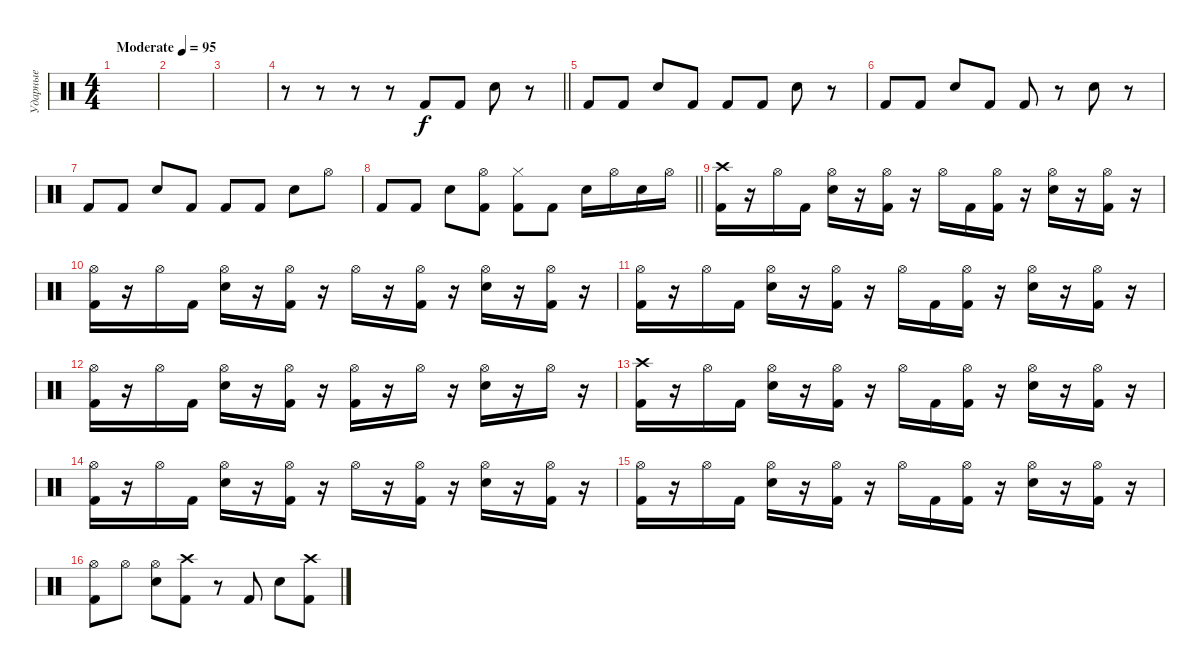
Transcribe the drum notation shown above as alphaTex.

\track ("Ударные" "Ударные") {instrument percussion}
\staff {score}
\articulation defaults
\ts (4 4)
\tempo (95 "Moderate")
\clef neutral
\ks c
|
|
|
\barLineRight lightlight
r.8 r.8 r.8 r.8 "Kick (hit) 2".8 "Kick (hit) 2".8 "Electric Snare (hit)".8 r.8 |
"Kick (hit) 2".8 "Kick (hit) 2".8 "Electric Snare (hit)".8 "Kick (hit) 2".8 "Kick (hit) 2".8 "Kick (hit) 2".8 "Electric Snare (hit)".8 r.8 |
"Kick (hit) 2".8 "Kick (hit) 2".8 "Electric Snare (hit)".8 "Kick (hit) 2".8 "Kick (hit) 2".8 r.8 "Electric Snare (hit)".8 r.8 |
"Kick (hit) 2".8 "Kick (hit) 2".8 "Electric Snare (hit)".8 "Kick (hit) 2".8 "Kick (hit) 2".8 "Kick (hit) 2".8 "Electric Snare (hit)".8 "Hi-Hat (open)".8 |
\barLineRight lightlight "Kick (hit) 2".8 "Kick (hit) 2".8 "Electric Snare (hit)".8
("Hi-Hat (open)" "Kick (hit) 2").8 ("Hi-Hat (closed)" "Kick (hit) 2").8 "Kick (hit) 2".8 "Electric Snare (hit)".16 "Hi-Hat (open)".16 "Electric Snare (hit)".16 "Hi-Hat (open)".16 |
\section ("" "")
("Crash high (hit)" "Kick (hit) 2").16 r.16 "Hi-Hat (open)".16 "Kick (hit) 2".16 ("Hi-Hat (open)" "Electric Snare (hit)").16 r.16 ("Hi-Hat (open)" "Kick (hit) 2").16 r.16 "Hi-Hat (open)".16 "Kick (hit) 2".16 ("Hi-Hat (open)" "Kick (hit) 2").16 r.16 ("Hi-Hat (open)" "Electric Snare (hit)").16 r.16 ("Hi-Hat (open)" "Kick (hit) 2").16 r.16 |
("Hi-Hat (open)" "Kick (hit) 2").16 r.16 "Hi-Hat (open)".16 "Kick (hit) 2".16 ("Hi-Hat (open)" "Electric Snare (hit)").16 r.16 ("Hi-Hat (open)" "Kick (hit) 2").16 r.16 "Hi-Hat (open)".16 r.16 ("Hi-Hat (open)" "Kick (hit) 2").16 r.16 ("Hi-Hat (open)" "Electric Snare (hit)").16 r.16 ("Hi-Hat (open)" "Kick (hit) 2").16 r.16 |
("Hi-Hat (open)" "Kick (hit) 2").16 r.16 "Hi-Hat (open)".16 "Kick (hit) 2".16 ("Hi-Hat (open)" "Electric Snare (hit)").16 r.16 ("Hi-Hat (open)" "Kick (hit) 2").16 r.16 "Hi-Hat (open)".16 "Kick (hit) 2".16 ("Hi-Hat (open)" "Kick (hit) 2").16 r.16 ("Hi-Hat (open)" "Electric Snare (hit)").16 r.16 ("Hi-Hat (open)" "Kick (hit) 2").16 r.16 |
("Hi-Hat (open)" "Kick (hit) 2").16 r.16 "Hi-Hat (open)".16 "Kick (hit) 2".16 ("Hi-Hat (open)" "Electric Snare (hit)").16 r.16 ("Hi-Hat (open)" "Kick (hit) 2").16 r.16 ("Hi-Hat (open)" "Kick (hit) 2").16 r.16 "Hi-Hat (open)".16 r.16 ("Hi-Hat (open)" "Electric Snare (hit)").16 r.16 "Hi-Hat (open)".16 r.16 |
("Crash high (hit)" "Kick (hit) 2").16 r.16 "Hi-Hat (open)".16 "Kick (hit) 2".16 ("Hi-Hat (open)" "Electric Snare (hit)").16 r.16 ("Hi-Hat (open)" "Kick (hit) 2").16 r.16 "Hi-Hat (open)".16 "Kick (hit) 2".16 ("Hi-Hat (open)" "Kick (hit) 2").16 r.16 ("Hi-Hat (open)" "Electric Snare (hit)").16 r.16 ("Hi-Hat (open)" "Kick (hit) 2").16 r.16 |
("Hi-Hat (open)" "Kick (hit) 2").16 r.16 "Hi-Hat (open)".16 "Kick (hit) 2".16 ("Hi-Hat (open)" "Electric Snare (hit)").16 r.16 ("Hi-Hat (open)" "Kick (hit) 2").16 r.16 "Hi-Hat (open)".16 r.16 ("Hi-Hat (open)" "Kick (hit) 2").16 r.16 ("Hi-Hat (open)" "Electric Snare (hit)").16 r.16 ("Hi-Hat (open)" "Kick (hit) 2").16 r.16 |
("Hi-Hat (open)" "Kick (hit) 2").16 r.16 "Hi-Hat (open)".16 "Kick (hit) 2".16 ("Hi-Hat (open)" "Electric Snare (hit)").16 r.16 ("Hi-Hat (open)" "Kick (hit) 2").16 r.16 "Hi-Hat (open)".16 "Kick (hit) 2".16 ("Hi-Hat (open)" "Kick (hit) 2").16 r.16 ("Hi-Hat (open)" "Electric Snare (hit)").16 r.16 ("Hi-Hat (open)" "Kick (hit) 2").16 r.16 |
("Hi-Hat (open)" "Kick (hit) 2").8 "Hi-Hat (open)".8 ("Hi-Hat (open)" "Electric Snare (hit)").8 ("Crash high (hit)" "Kick (hit) 2").8 r.8 "Kick (hit) 2".8 "Electric Snare (hit)".8 ("Crash high (hit)" "Kick (hit) 2").8
